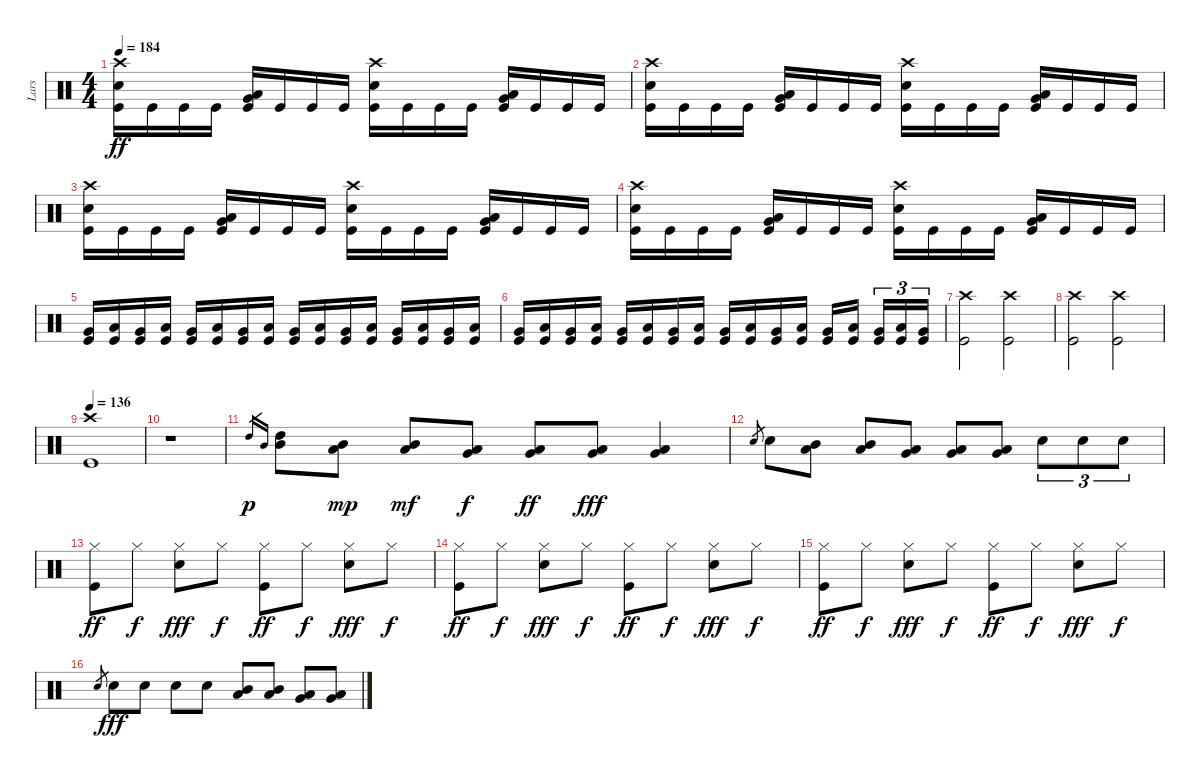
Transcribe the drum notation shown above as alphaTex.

\track ("Lars" "Lars") {instrument percussion}
\staff {score}
\articulation defaults
\ts (4 4)
\tempo 184
\clef neutral
\ks c
("Crash high (hit)" "Electric Snare (hit)" "Kick (hit)").16{dy ff} "Kick (hit)".16 "Kick (hit)".16 "Kick (hit)".16 ("Low Tom (hit)" "Very Low Tom (hit)" "Kick (hit)").16 "Kick (hit)".16 "Kick (hit)".16 "Kick (hit)".16 ("Crash high (hit)" "Electric Snare (hit)" "Kick (hit)").16 "Kick (hit)".16 "Kick (hit)".16 "Kick (hit)".16 ("Low Tom (hit)" "Very Low Tom (hit)" "Kick (hit)").16 "Kick (hit)".16 "Kick (hit)".16 "Kick (hit)".16 |
("Crash high (hit)" "Electric Snare (hit)" "Kick (hit)").16 "Kick (hit)".16 "Kick (hit)".16 "Kick (hit)".16 ("Low Tom (hit)" "Very Low Tom (hit)" "Kick (hit)").16 "Kick (hit)".16 "Kick (hit)".16 "Kick (hit)".16 ("Crash high (hit)" "Electric Snare (hit)" "Kick (hit)").16 "Kick (hit)".16 "Kick (hit)".16 "Kick (hit)".16 ("Low Tom (hit)" "Very Low Tom (hit)" "Kick (hit)").16 "Kick (hit)".16 "Kick (hit)".16 "Kick (hit)".16 |
("Crash high (hit)" "Electric Snare (hit)" "Kick (hit)").16 "Kick (hit)".16 "Kick (hit)".16 "Kick (hit)".16 ("Low Tom (hit)" "Very Low Tom (hit)" "Kick (hit)").16 "Kick (hit)".16 "Kick (hit)".16 "Kick (hit)".16 ("Crash high (hit)" "Electric Snare (hit)" "Kick (hit)").16 "Kick (hit)".16 "Kick (hit)".16 "Kick (hit)".16 ("Low Tom (hit)" "Very Low Tom (hit)" "Kick (hit)").16 "Kick (hit)".16 "Kick (hit)".16 "Kick (hit)".16 |
("Crash high (hit)" "Electric Snare (hit)" "Kick (hit)").16 "Kick (hit)".16 "Kick (hit)".16 "Kick (hit)".16 ("Low Tom (hit)" "Very Low Tom (hit)" "Kick (hit)").16 "Kick (hit)".16 "Kick (hit)".16 "Kick (hit)".16 ("Crash high (hit)" "Electric Snare (hit)" "Kick (hit)").16 "Kick (hit)".16 "Kick (hit)".16 "Kick (hit)".16 ("Low Tom (hit)" "Very Low Tom (hit)" "Kick (hit)").16 "Kick (hit)".16 "Kick (hit)".16 "Kick (hit)".16 |
("Very Low Tom (hit)" "Kick (hit)").16 ("Low Tom (hit)" "Kick (hit)").16 ("Very Low Tom (hit)" "Kick (hit)").16 ("Low Tom (hit)" "Kick (hit)").16 ("Very Low Tom (hit)" "Kick (hit)").16 ("Low Tom (hit)" "Kick (hit)").16 ("Very Low Tom (hit)" "Kick (hit)").16 ("Low Tom (hit)" "Kick (hit)").16 ("Very Low Tom (hit)" "Kick (hit)").16 ("Low Tom (hit)" "Kick (hit)").16 ("Very Low Tom (hit)" "Kick (hit)").16 ("Low Tom (hit)" "Kick (hit)").16 ("Very Low Tom (hit)" "Kick (hit)").16 ("Low Tom (hit)" "Kick (hit)").16 ("Very Low Tom (hit)" "Kick (hit)").16 ("Low Tom (hit)" "Kick (hit)").16 |
("Very Low Tom (hit)" "Kick (hit)").16 ("Low Tom (hit)" "Kick (hit)").16 ("Very Low Tom (hit)" "Kick (hit)").16 ("Low Tom (hit)" "Kick (hit)").16 ("Very Low Tom (hit)" "Kick (hit)").16 ("Low Tom (hit)" "Kick (hit)").16 ("Very Low Tom (hit)" "Kick (hit)").16 ("Low Tom (hit)" "Kick (hit)").16 ("Very Low Tom (hit)" "Kick (hit)").16 ("Low Tom (hit)" "Kick (hit)").16 ("Very Low Tom (hit)" "Kick (hit)").16 ("Low Tom (hit)" "Kick (hit)").16 ("Very Low Tom (hit)" "Kick (hit)").16 ("Low Tom (hit)" "Kick (hit)").16 ("Very Low Tom (hit)" "Kick (hit)").16{tu (3 2)} ("Low Tom (hit)" "Kick (hit)").16{tu (3 2)} ("Very Low Tom (hit)" "Kick (hit)").16{tu (3 2)} |
("Crash high (hit)" "Kick (hit)").2 ("Crash high (hit)" "Kick (hit)").2 |
("Crash high (hit)" "Kick (hit)").2 ("Crash high (hit)" "Kick (hit)").2 |
\tempo 136
("Crash high (hit)" "Kick (hit)").1 |
r.1 |
"High Tom (hit)".16{gr dy p} "Mid Tom (hit)".16{gr} ("High Tom (hit)" "Mid Tom (hit)").8 ("Mid Tom (hit)" "Low Tom (hit)").8{dy mp} ("Mid Tom (hit)" "Low Tom (hit)").8{dy mf} ("Low Tom (hit)" "Very Low Tom (hit)").8{dy f} ("Low Tom (hit)" "Very Low Tom (hit)").8{dy ff} ("Very Low Tom (hit)" "Low Floor Tom (hit)").8{dy fff} ("Very Low Tom (hit)" "Low Floor Tom (hit)").4 |
"Electric Snare (hit)".8{gr} "Electric Snare (hit)".8 ("Mid Tom (hit)" "Low Tom (hit)").8 ("Mid Tom (hit)" "Low Tom (hit)").8 ("Low Tom (hit)" "Very Low Tom (hit)").8 ("Low Tom (hit)" "Very Low Tom (hit)").8 ("Very Low Tom (hit)" "Low Floor Tom (hit)").8 "Electric Snare (hit)".8{tu (3 2)} "Electric Snare (hit)".8{tu (3 2)} "Electric Snare (hit)".8{tu (3 2)} |
("Hi-Hat (closed)" "Kick (hit)").8{dy ff} "Hi-Hat (closed)".8{dy f} ("Hi-Hat (closed)" "Electric Snare (hit)").8{dy fff} "Hi-Hat (closed)".8{dy f} ("Hi-Hat (closed)" "Kick (hit)").8{dy ff} "Hi-Hat (closed)".8{dy f} ("Hi-Hat (closed)" "Electric Snare (hit)").8{dy fff} "Hi-Hat (closed)".8{dy f} |
("Hi-Hat (closed)" "Kick (hit)").8{dy ff} "Hi-Hat (closed)".8{dy f} ("Hi-Hat (closed)" "Electric Snare (hit)").8{dy fff} "Hi-Hat (closed)".8{dy f} ("Hi-Hat (closed)" "Kick (hit)").8{dy ff} "Hi-Hat (closed)".8{dy f} ("Hi-Hat (closed)" "Electric Snare (hit)").8{dy fff} "Hi-Hat (closed)".8{dy f} |
("Hi-Hat (closed)" "Kick (hit)").8{dy ff} "Hi-Hat (closed)".8{dy f} ("Hi-Hat (closed)" "Electric Snare (hit)").8{dy fff} "Hi-Hat (closed)".8{dy f} ("Hi-Hat (closed)" "Kick (hit)").8{dy ff} "Hi-Hat (closed)".8{dy f} ("Hi-Hat (closed)" "Electric Snare (hit)").8{dy fff} "Hi-Hat (closed)".8{dy f} |
"Electric Snare (hit)".8{gr} "Electric Snare (hit)".8{dy fff} "Electric Snare (hit)".8 "Electric Snare (hit)".8 "Electric Snare (hit)".8 ("Mid Tom (hit)" "Low Tom (hit)").8 ("Mid Tom (hit)" "Low Tom (hit)").8 ("Low Tom (hit)" "Very Low Tom (hit)").8 ("Low Tom (hit)" "Very Low Tom (hit)").8
